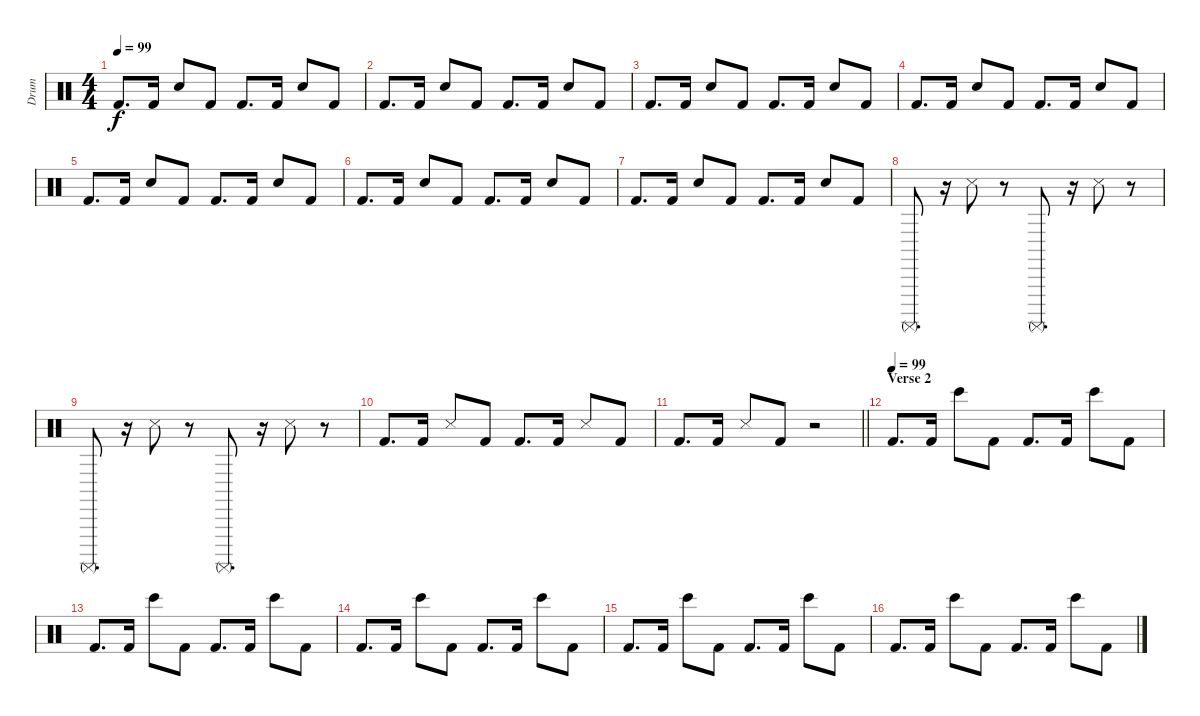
\track ("Drum" "Drum") {instrument percussion}
\staff {score}
\articulation defaults
\ts (4 4)
\tempo 99
\clef neutral
\ks c "Kick (hit) 2".8{d dy f} "Kick (hit) 2".16 "Electric Snare (hit)".8 "Kick (hit) 2".8 "Kick (hit) 2".8{d} "Kick (hit) 2".16 "Electric Snare (hit)".8 "Kick (hit) 2".8
|
"Kick (hit) 2".8{d} "Kick (hit) 2".16 "Electric Snare (hit)".8 "Kick (hit) 2".8 "Kick (hit) 2".8{d} "Kick (hit) 2".16 "Electric Snare (hit)".8 "Kick (hit) 2".8 |
"Kick (hit) 2".8{d} "Kick (hit) 2".16 "Electric Snare (hit)".8 "Kick (hit) 2".8 "Kick (hit) 2".8{d} "Kick (hit) 2".16 "Electric Snare (hit)".8 "Kick (hit) 2".8 |
"Kick (hit) 2".8{d} "Kick (hit) 2".16 "Electric Snare (hit)".8 "Kick (hit) 2".8 "Kick (hit) 2".8{d} "Kick (hit) 2".16 "Electric Snare (hit)".8 "Kick (hit) 2".8 |
"Kick (hit) 2".8{d} "Kick (hit) 2".16 "Electric Snare (hit)".8 "Kick (hit) 2".8 "Kick (hit) 2".8{d} "Kick (hit) 2".16 "Electric Snare (hit)".8 "Kick (hit) 2".8 |
"Kick (hit) 2".8{d} "Kick (hit) 2".16 "Electric Snare (hit)".8 "Kick (hit) 2".8 "Kick (hit) 2".8{d} "Kick (hit) 2".16 "Electric Snare (hit)".8 "Kick (hit) 2".8 |
"Kick (hit) 2".8{d} "Kick (hit) 2".16 "Electric Snare (hit)".8 "Kick (hit) 2".8 "Kick (hit) 2".8{d} "Kick (hit) 2".16 "Electric Snare (hit)".8 "Kick (hit) 2".8 |
"Surdo (mute)".8{d volume 8} r.16 "Snare (side stick) 3".8 r.8 "Surdo (mute)".8{d} r.16 "Snare (side stick) 3".8 r.8 |
"Surdo (mute)".8{d} r.16 "Snare (side stick) 3".8 r.8 "Surdo (mute)".8{d} r.16 "Snare (side stick) 3".8 r.8 |
"Kick (hit) 2".8{d} "Kick (hit) 2".16 "Snare (side stick) 3".8 "Kick (hit) 2".8 "Kick (hit) 2".8{d} "Kick (hit) 2".16 "Snare (side stick) 3".8 "Kick (hit) 2".8 |
\barLineRight lightlight "Kick (hit) 2".8{d} "Kick (hit) 2".16 "Snare (side stick) 3".8 "Kick (hit) 2".8
r.2 |
\section ("" "Verse 2")
\tempo (99)
"Kick (hit) 2".8{d volume 16} "Kick (hit) 2".16 "Bongo High (hit)".8 "Kick (hit) 2".8 "Kick (hit) 2".8{d} "Kick (hit) 2".16 "Bongo High (hit)".8 "Kick (hit) 2".8 |
"Kick (hit) 2".8{d} "Kick (hit) 2".16 "Bongo High (hit)".8 "Kick (hit) 2".8 "Kick (hit) 2".8{d} "Kick (hit) 2".16 "Bongo High (hit)".8 "Kick (hit) 2".8 |
"Kick (hit) 2".8{d} "Kick (hit) 2".16 "Bongo High (hit)".8 "Kick (hit) 2".8 "Kick (hit) 2".8{d} "Kick (hit) 2".16 "Bongo High (hit)".8 "Kick (hit) 2".8 |
"Kick (hit) 2".8{d} "Kick (hit) 2".16 "Bongo High (hit)".8 "Kick (hit) 2".8 "Kick (hit) 2".8{d} "Kick (hit) 2".16 "Bongo High (hit)".8 "Kick (hit) 2".8 |
"Kick (hit) 2".8{d} "Kick (hit) 2".16 "Bongo High (hit)".8 "Kick (hit) 2".8 "Kick (hit) 2".8{d} "Kick (hit) 2".16 "Bongo High (hit)".8 "Kick (hit) 2".8
